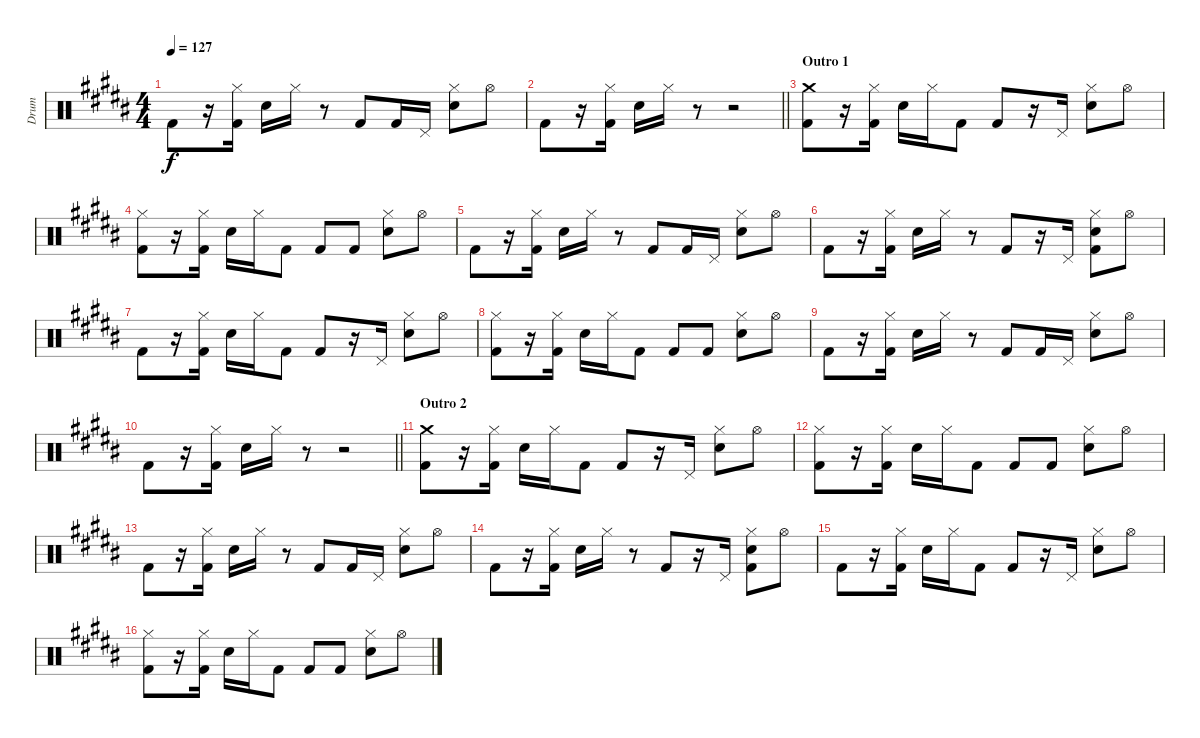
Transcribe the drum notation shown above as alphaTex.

\track ("Drum" "Drum") {instrument percussion}
\staff {score}
\articulation defaults
\ts (4 4)
\tempo 127
\clef neutral
\ks g#minor "Kick (hit) 2".8{dy f}
r.16 ("Hi-Hat (closed)" "Kick (hit) 2").16 "Snare (hit) 2".16 "Hi-Hat (closed)".16 r.8 "Kick (hit) 2".8 "Kick (hit) 2".16 "Pedal Hi-Hat (hit)".16 ("Hi-Hat (closed)" "Snare (hit) 2").8 "Hi-Hat (open)".8 |
\barLineRight lightlight "Kick (hit) 2".8
r.16 ("Hi-Hat (closed)" "Kick (hit) 2").16 "Snare (hit) 2".16 "Hi-Hat (closed)".16 r.8 r.2 |
\section ("" "Outro 1")
("Crash medium (hit)" "Kick (hit) 2").8 r.16 ("Hi-Hat (closed)" "Kick (hit) 2").16 "Snare (hit) 2".16 "Hi-Hat (closed)".16 "Kick (hit) 2".8 "Kick (hit) 2".8 r.16 "Pedal Hi-Hat (hit)".16 ("Hi-Hat (closed)" "Snare (hit) 2").8 "Hi-Hat (open)".8 |
("Hi-Hat (closed)" "Kick (hit) 2").8 r.16 ("Hi-Hat (closed)" "Kick (hit) 2").16 "Snare (hit) 2".16 "Hi-Hat (closed)".16 "Kick (hit) 2".8 "Kick (hit) 2".8 "Kick (hit) 2".8 ("Hi-Hat (closed)" "Snare (hit) 2").8 "Hi-Hat (open)".8 |
"Kick (hit) 2".8 r.16 ("Hi-Hat (closed)" "Kick (hit) 2").16 "Snare (hit) 2".16 "Hi-Hat (closed)".16 r.8 "Kick (hit) 2".8 "Kick (hit) 2".16 "Pedal Hi-Hat (hit)".16 ("Hi-Hat (closed)" "Snare (hit) 2").8 "Hi-Hat (open)".8 |
"Kick (hit) 2".8 r.16 ("Hi-Hat (closed)" "Kick (hit) 2").16 "Snare (hit) 2".16 "Hi-Hat (closed)".16 r.8 "Kick (hit) 2".8 r.16 "Pedal Hi-Hat (hit)".16 ("Hi-Hat (closed)" "Snare (hit) 2" "Kick (hit) 2").8 "Hi-Hat (open)".8 |
"Kick (hit) 2".8 r.16 ("Hi-Hat (closed)" "Kick (hit) 2").16 "Snare (hit) 2".16 "Hi-Hat (closed)".16 "Kick (hit) 2".8 "Kick (hit) 2".8 r.16 "Pedal Hi-Hat (hit)".16 ("Hi-Hat (closed)" "Snare (hit) 2").8 "Hi-Hat (open)".8 |
("Hi-Hat (closed)" "Kick (hit) 2").8 r.16 ("Hi-Hat (closed)" "Kick (hit) 2").16 "Snare (hit) 2".16 "Hi-Hat (closed)".16 "Kick (hit) 2".8 "Kick (hit) 2".8 "Kick (hit) 2".8 ("Hi-Hat (closed)" "Snare (hit) 2").8 "Hi-Hat (open)".8 |
"Kick (hit) 2".8 r.16 ("Hi-Hat (closed)" "Kick (hit) 2").16 "Snare (hit) 2".16 "Hi-Hat (closed)".16 r.8 "Kick (hit) 2".8 "Kick (hit) 2".16 "Pedal Hi-Hat (hit)".16 ("Hi-Hat (closed)" "Snare (hit) 2").8 "Hi-Hat (open)".8 |
\barLineRight lightlight "Kick (hit) 2".8
r.16 ("Hi-Hat (closed)" "Kick (hit) 2").16 "Snare (hit) 2".16 "Hi-Hat (closed)".16 r.8 r.2 |
\section ("" "Outro 2")
("Crash medium (hit)" "Kick (hit) 2").8 r.16 ("Hi-Hat (closed)" "Kick (hit) 2").16 "Snare (hit) 2".16 "Hi-Hat (closed)".16 "Kick (hit) 2".8 "Kick (hit) 2".8 r.16 "Pedal Hi-Hat (hit)".16 ("Hi-Hat (closed)" "Snare (hit) 2").8 "Hi-Hat (open)".8 |
("Hi-Hat (closed)" "Kick (hit) 2").8 r.16 ("Hi-Hat (closed)" "Kick (hit) 2").16 "Snare (hit) 2".16 "Hi-Hat (closed)".16 "Kick (hit) 2".8 "Kick (hit) 2".8 "Kick (hit) 2".8 ("Hi-Hat (closed)" "Snare (hit) 2").8 "Hi-Hat (open)".8 |
"Kick (hit) 2".8 r.16 ("Hi-Hat (closed)" "Kick (hit) 2").16 "Snare (hit) 2".16 "Hi-Hat (closed)".16 r.8 "Kick (hit) 2".8 "Kick (hit) 2".16 "Pedal Hi-Hat (hit)".16 ("Hi-Hat (closed)" "Snare (hit) 2").8 "Hi-Hat (open)".8 |
"Kick (hit) 2".8 r.16 ("Hi-Hat (closed)" "Kick (hit) 2").16 "Snare (hit) 2".16 "Hi-Hat (closed)".16 r.8 "Kick (hit) 2".8 r.16 "Pedal Hi-Hat (hit)".16 ("Hi-Hat (closed)" "Snare (hit) 2" "Kick (hit) 2").8 "Hi-Hat (open)".8 |
"Kick (hit) 2".8 r.16 ("Hi-Hat (closed)" "Kick (hit) 2").16 "Snare (hit) 2".16 "Hi-Hat (closed)".16 "Kick (hit) 2".8 "Kick (hit) 2".8 r.16 "Pedal Hi-Hat (hit)".16 ("Hi-Hat (closed)" "Snare (hit) 2").8 "Hi-Hat (open)".8 |
("Hi-Hat (closed)" "Kick (hit) 2").8 r.16 ("Hi-Hat (closed)" "Kick (hit) 2").16 "Snare (hit) 2".16 "Hi-Hat (closed)".16 "Kick (hit) 2".8 "Kick (hit) 2".8 "Kick (hit) 2".8 ("Hi-Hat (closed)" "Snare (hit) 2").8 "Hi-Hat (open)".8
